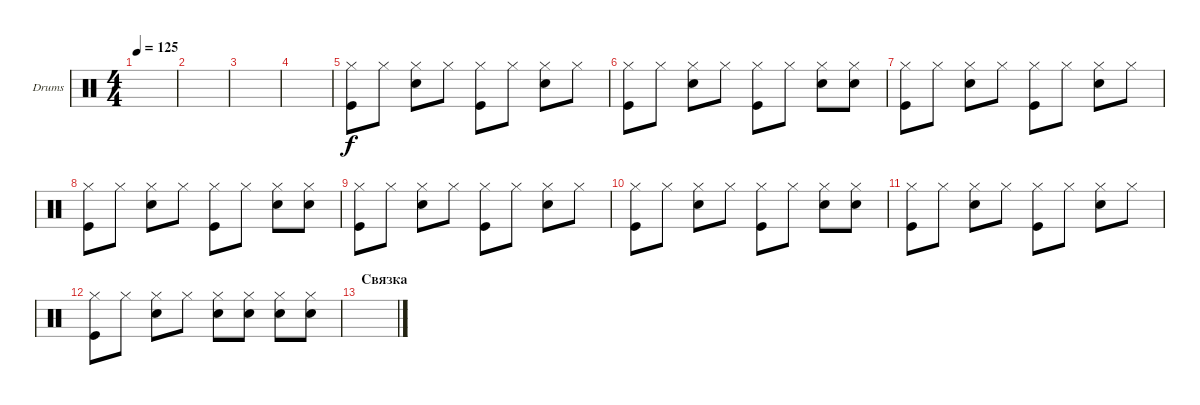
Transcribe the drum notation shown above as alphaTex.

\defaultSystemsLayout 4
\bracketExtendMode groupsimilarinstruments
\firstSystemTrackNameOrientation horizontal
\otherSystemsTrackNameOrientation horizontal
\track ("Drumkit" "Drums") {instrument percussion}
\staff {score}
\articulation defaults
\ts (4 4)
\tempo 125
\clef neutral
\scale
0.333333
\ks c
|
\scale
0.333333 |
\scale
0.333333 |
\scale
0.333333 |
\scale
0.333333 ("Hi-Hat (closed)" "Kick (hit)").8 "Hi-Hat (closed)".8 ("Hi-Hat (closed)" "Snare (hit) 2").8 "Hi-Hat (closed)".8 ("Hi-Hat (closed)" "Kick (hit)").8 "Hi-Hat (closed)".8 ("Hi-Hat (closed)" "Snare (hit) 2").8 "Hi-Hat (closed)".8 |
\scale
0.333333 ("Hi-Hat (closed)" "Kick (hit)").8 "Hi-Hat (closed)".8 ("Hi-Hat (closed)" "Snare (hit) 2").8 "Hi-Hat (closed)".8 ("Hi-Hat (closed)" "Kick (hit)").8 "Hi-Hat (closed)".8 ("Hi-Hat (closed)" "Snare (hit) 2").8 ("Hi-Hat (closed)" "Snare (hit) 2").8 |
\scale
0.333333 ("Hi-Hat (closed)" "Kick (hit)").8 "Hi-Hat (closed)".8 ("Hi-Hat (closed)" "Snare (hit) 2").8 "Hi-Hat (closed)".8 ("Hi-Hat (closed)" "Kick (hit)").8 "Hi-Hat (closed)".8 ("Hi-Hat (closed)" "Snare (hit) 2").8 "Hi-Hat (closed)".8 |
\scale
0.333333 ("Hi-Hat (closed)" "Kick (hit)").8 "Hi-Hat (closed)".8 ("Hi-Hat (closed)" "Snare (hit) 2").8 "Hi-Hat (closed)".8 ("Hi-Hat (closed)" "Kick (hit)").8 "Hi-Hat (closed)".8 ("Hi-Hat (closed)" "Snare (hit) 2").8 ("Hi-Hat (closed)" "Snare (hit) 2").8 |
\scale
0.333333 ("Hi-Hat (closed)" "Kick (hit)").8 "Hi-Hat (closed)".8 ("Hi-Hat (closed)" "Snare (hit) 2").8 "Hi-Hat (closed)".8 ("Hi-Hat (closed)" "Kick (hit)").8 "Hi-Hat (closed)".8 ("Hi-Hat (closed)" "Snare (hit) 2").8 "Hi-Hat (closed)".8 |
\scale
0.333333 ("Hi-Hat (closed)" "Kick (hit)").8 "Hi-Hat (closed)".8 ("Hi-Hat (closed)" "Snare (hit) 2").8 "Hi-Hat (closed)".8 ("Hi-Hat (closed)" "Kick (hit)").8 "Hi-Hat (closed)".8 ("Hi-Hat (closed)" "Snare (hit) 2").8 ("Hi-Hat (closed)" "Snare (hit) 2").8 |
\scale
0.333333 ("Hi-Hat (closed)" "Kick (hit)").8 "Hi-Hat (closed)".8 ("Hi-Hat (closed)" "Snare (hit) 2").8 "Hi-Hat (closed)".8 ("Hi-Hat (closed)" "Kick (hit)").8 "Hi-Hat (closed)".8 ("Hi-Hat (closed)" "Snare (hit) 2").8 "Hi-Hat (closed)".8 |
("Hi-Hat (closed)" "Kick (hit)").8 "Hi-Hat (closed)".8 ("Hi-Hat (closed)" "Snare (hit) 2").8 "Hi-Hat (closed)".8 ("Hi-Hat (closed)" "Snare (hit) 2").8 ("Hi-Hat (closed)" "Snare (hit) 2").8 ("Hi-Hat (closed)" "Snare (hit) 2").8 ("Hi-Hat (closed)" "Snare (hit) 2").8 |
\section ("" "Связка")
